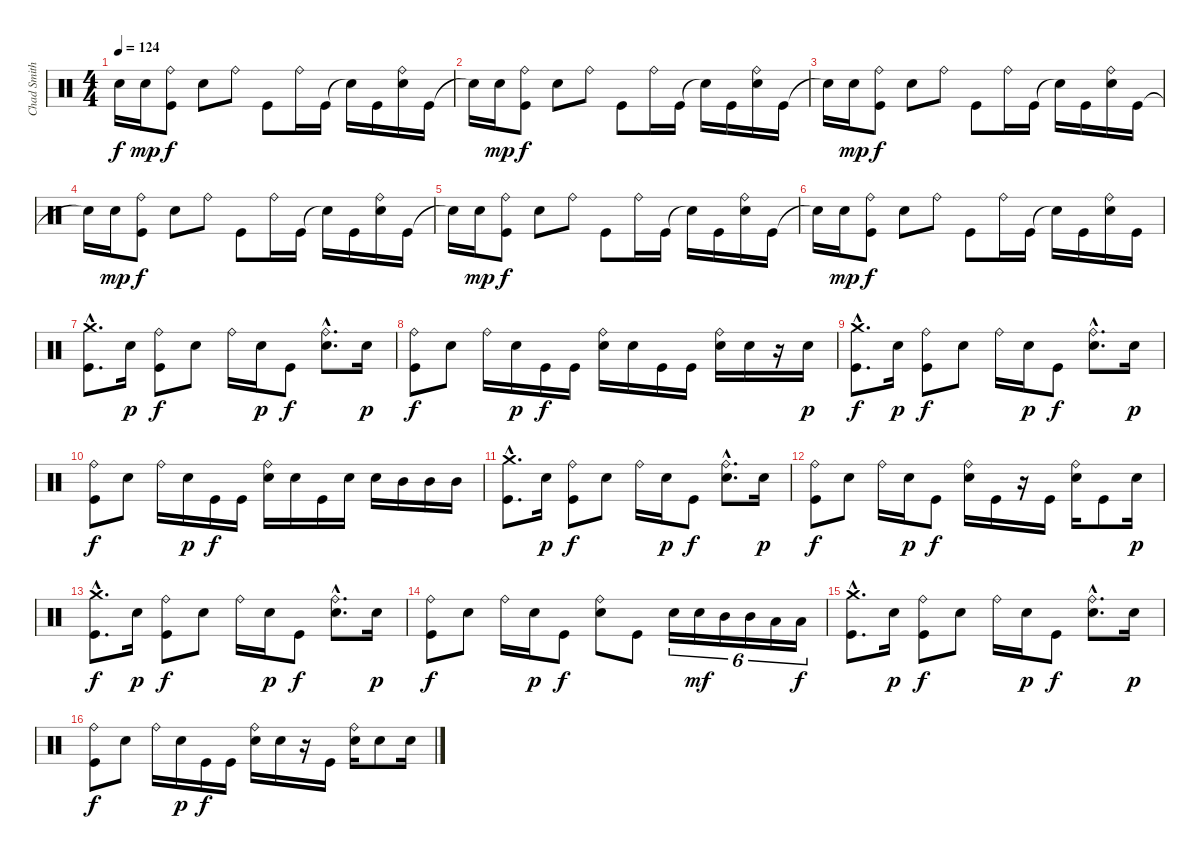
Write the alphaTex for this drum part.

\track ("Chad Smith" "Chad Smith") {instrument percussion}
\staff {score}
\articulation defaults
\ts (4 4)
\tempo 124
\clef neutral
\ks c "Snare (hit)"{t}.16{dy f} "Electric Snare (hit)".16{dy mp}
("Ride (bell)" "Kick (hit)").8{dy f} "Electric Snare (hit)".8 "Ride (bell)".8 "Kick (hit)".8 "Ride (bell)".16 "Kick (hit)".16 "Snare (hit)"{t}.16 "Kick (hit)".16 ("Ride (bell)" "Electric Snare (hit)").16 "Kick (hit)".16 |
"Snare (hit)"{t}.16 "Electric Snare (hit)".16{dy mp} ("Ride (bell)" "Kick (hit)").8{dy f} "Electric Snare (hit)".8 "Ride (bell)".8 "Kick (hit)".8 "Ride (bell)".16 "Kick (hit)".16 "Snare (hit)"{t}.16 "Kick (hit)".16 ("Ride (bell)" "Electric Snare (hit)").16 "Kick (hit)".16 |
"Snare (hit)"{t}.16 "Electric Snare (hit)".16{dy mp} ("Ride (bell)" "Kick (hit)").8{dy f} "Electric Snare (hit)".8 "Ride (bell)".8 "Kick (hit)".8 "Ride (bell)".16 "Kick (hit)".16 "Snare (hit)"{t}.16 "Kick (hit)".16 ("Ride (bell)" "Electric Snare (hit)").16 "Kick (hit)".16 |
"Snare (hit)"{t}.16 "Electric Snare (hit)".16{dy mp} ("Ride (bell)" "Kick (hit)").8{dy f} "Electric Snare (hit)".8 "Ride (bell)".8 "Kick (hit)".8 "Ride (bell)".16 "Kick (hit)".16 "Snare (hit)"{t}.16 "Kick (hit)".16 ("Ride (bell)" "Electric Snare (hit)").16 "Kick (hit)".16 |
"Snare (hit)"{t}.16 "Electric Snare (hit)".16{dy mp} ("Ride (bell)" "Kick (hit)").8{dy f} "Electric Snare (hit)".8 "Ride (bell)".8 "Kick (hit)".8 "Ride (bell)".16 "Kick (hit)".16 "Snare (hit)"{t}.16 "Kick (hit)".16 ("Ride (bell)" "Electric Snare (hit)").16 "Kick (hit)".16 |
"Snare (hit)"{t}.16 "Electric Snare (hit)".16{dy mp} ("Ride (bell)" "Kick (hit)").8{dy f} "Electric Snare (hit)".8 "Ride (bell)".8 "Kick (hit)".8 "Ride (bell)".16 "Kick (hit)".16 "Snare (hit)"{t}.16 "Kick (hit)".16 ("Ride (bell)" "Electric Snare (hit)").16 "Kick (hit)".16 |
("Crash medium (hit)"{hac} "Kick (hit)"{hac}).8{d} "Electric Snare (hit)".16{dy p} ("Ride (bell)" "Kick (hit)").8{dy f} "Electric Snare (hit)".8 "Ride (bell)".16 "Electric Snare (hit)".16{dy p} "Kick (hit)".8{dy f} ("Ride (bell)"{hac} "Electric Snare (hit)"{hac}).8{d} "Electric Snare (hit)".16{dy p} |
("Ride (bell)" "Kick (hit)").8{dy f} "Electric Snare (hit)".8 "Ride (bell)".16 "Electric Snare (hit)".16{dy p} "Kick (hit)".16{dy f} "Kick (hit)".16 ("Ride (bell)" "Electric Snare (hit)").16 "Electric Snare (hit)".16 "Kick (hit)".16 "Kick (hit)".16 ("Ride (bell)" "Electric Snare (hit)").16 "Electric Snare (hit)".16 r.16 "Electric Snare (hit)".16{dy p} |
("Crash medium (hit)"{hac} "Kick (hit)"{hac}).8{d dy f} "Electric Snare (hit)".16{dy p} ("Ride (bell)" "Kick (hit)").8{dy f} "Electric Snare (hit)".8 "Ride (bell)".16 "Electric Snare (hit)".16{dy p} "Kick (hit)".8{dy f} ("Ride (bell)"{hac} "Electric Snare (hit)"{hac}).8{d} "Electric Snare (hit)".16{dy p} |
("Ride (bell)" "Kick (hit)").8{dy f} "Electric Snare (hit)".8 "Ride (bell)".16 "Electric Snare (hit)".16{dy p} "Kick (hit)".16{dy f} "Kick (hit)".16 ("Ride (bell)" "Electric Snare (hit)").16 "Electric Snare (hit)".16 "Kick (hit)".16 "Electric Snare (hit)".16 "Electric Snare (hit)".16 "Mid Tom (hit)".16 "Mid Tom (hit)".16 "Mid Tom (hit)".16 |
("Crash medium (hit)"{hac} "Kick (hit)"{hac}).8{d} "Electric Snare (hit)".16{dy p} ("Ride (bell)" "Kick (hit)").8{dy f} "Electric Snare (hit)".8 "Ride (bell)".16 "Electric Snare (hit)".16{dy p} "Kick (hit)".8{dy f} ("Ride (bell)"{hac} "Electric Snare (hit)"{hac}).8{d} "Electric Snare (hit)".16{dy p} |
("Ride (bell)" "Kick (hit)").8{dy f} "Electric Snare (hit)".8 "Ride (bell)".16 "Electric Snare (hit)".16{dy p} "Kick (hit)".8{dy f} ("Ride (bell)" "Electric Snare (hit)").16 "Kick (hit)".16 r.16 "Kick (hit)".16 ("Ride (bell)" "Electric Snare (hit)").16 "Kick (hit)".8 "Electric Snare (hit)".16{dy p} |
("Crash medium (hit)"{hac} "Kick (hit)"{hac}).8{d dy f} "Electric Snare (hit)".16{dy p} ("Ride (bell)" "Kick (hit)").8{dy f} "Electric Snare (hit)".8 "Ride (bell)".16 "Electric Snare (hit)".16{dy p} "Kick (hit)".8{dy f} ("Ride (bell)"{hac} "Electric Snare (hit)"{hac}).8{d} "Electric Snare (hit)".16{dy p} |
("Ride (bell)" "Kick (hit)").8{dy f} "Electric Snare (hit)".8 "Ride (bell)".16 "Electric Snare (hit)".16{dy p} "Kick (hit)".8{dy f} ("Ride (bell)" "Electric Snare (hit)").8 "Kick (hit)".8 "Electric Snare (hit)".16{tu (6 4)} "Electric Snare (hit)".16{tu (6 4) dy mf} "Mid Tom (hit)".16{tu (6 4)} "Mid Tom (hit)".16{tu (6 4)} "Low Tom (hit)".16{tu (6 4)} "Low Tom (hit)".16{tu (6 4) dy f} |
("Crash medium (hit)"{hac} "Kick (hit)"{hac}).8{d} "Electric Snare (hit)".16{dy p} ("Ride (bell)" "Kick (hit)").8{dy f} "Electric Snare (hit)".8 "Ride (bell)".16 "Electric Snare (hit)".16{dy p} "Kick (hit)".8{dy f} ("Ride (bell)"{hac} "Electric Snare (hit)"{hac}).8{d} "Electric Snare (hit)".16{dy p} |
("Ride (bell)" "Kick (hit)").8{dy f} "Electric Snare (hit)".8 "Ride (bell)".16 "Electric Snare (hit)".16{dy p} "Kick (hit)".16{dy f} "Kick (hit)".16 ("Ride (bell)" "Electric Snare (hit)").16 "Electric Snare (hit)".16 r.16 "Kick (hit)".16 ("Ride (bell)" "Electric Snare (hit)").16 "Electric Snare (hit)".8 "Electric Snare (hit)".16
